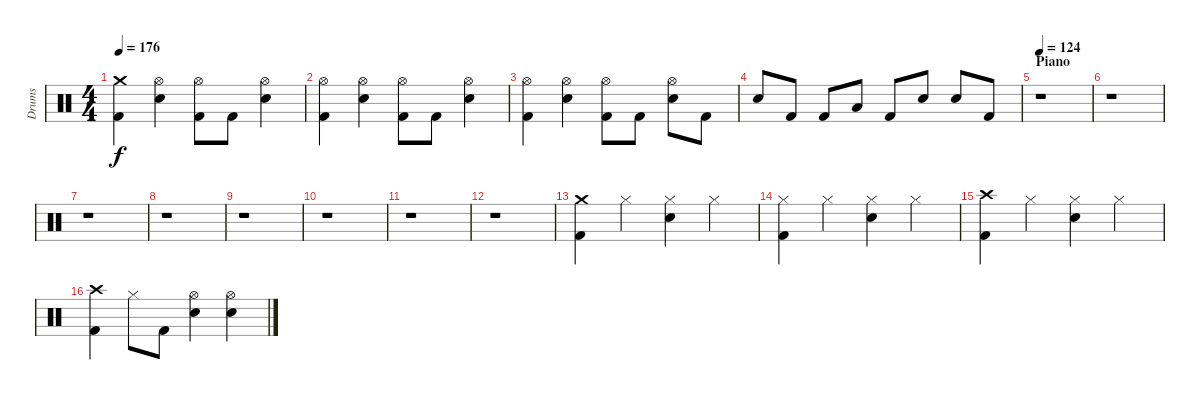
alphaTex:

\track ("Drums" "Drums") {instrument percussion}
\staff {score}
\articulation defaults
\ts (4 4)
\tempo 176
\clef neutral
\ks c
("Kick (hit) 2" "Crash medium (hit)").4{dy f} ("Electric Snare (hit)" "Hi-Hat (open)").4 ("Kick (hit) 2" "Hi-Hat (open)").8 "Kick (hit) 2".8 ("Electric Snare (hit)" "Hi-Hat (open)").4 |
("Kick (hit) 2" "Hi-Hat (open)").4 ("Electric Snare (hit)" "Hi-Hat (open)").4 ("Kick (hit) 2" "Hi-Hat (open)").8 "Kick (hit) 2".8 ("Electric Snare (hit)" "Hi-Hat (open)").4 |
("Kick (hit) 2" "Hi-Hat (open)").4 ("Electric Snare (hit)" "Hi-Hat (open)").4 ("Kick (hit) 2" "Hi-Hat (open)").8 "Kick (hit) 2".8 ("Electric Snare (hit)" "Hi-Hat (open)").8 "Kick (hit) 2".8 |
"Electric Snare (hit)".8 "Kick (hit) 2".8 "Kick (hit) 2".8 "Low Tom (hit)".8 "Kick (hit) 2".8 "Electric Snare (hit)".8 "Electric Snare (hit)".8 "Kick (hit) 2".8 |
\section ("" "Piano")
\tempo 124
r.1 |
r.1 |
r.1 |
r.1 |
r.1 |
r.1 |
r.1 |
r.1 |
("Kick (hit) 2" "Crash medium (hit)").4 "Hi-Hat (closed)".4 ("Electric Snare (hit)" "Hi-Hat (closed)").4 "Hi-Hat (closed)".4 |
("Kick (hit) 2" "Hi-Hat (closed)").4 "Hi-Hat (closed)".4 ("Electric Snare (hit)" "Hi-Hat (closed)").4 "Hi-Hat (closed)".4 |
("Kick (hit) 2" "Crash high (hit)").4 "Hi-Hat (closed)".4 ("Electric Snare (hit)" "Hi-Hat (closed)").4 "Hi-Hat (closed)".4 |
("Kick (hit) 2" "Crash high (hit)").4 "Hi-Hat (closed)".8 "Kick (hit) 2".8 ("Electric Snare (hit)" "Hi-Hat (open)").4 ("Electric Snare (hit)" "Hi-Hat (open)").4
